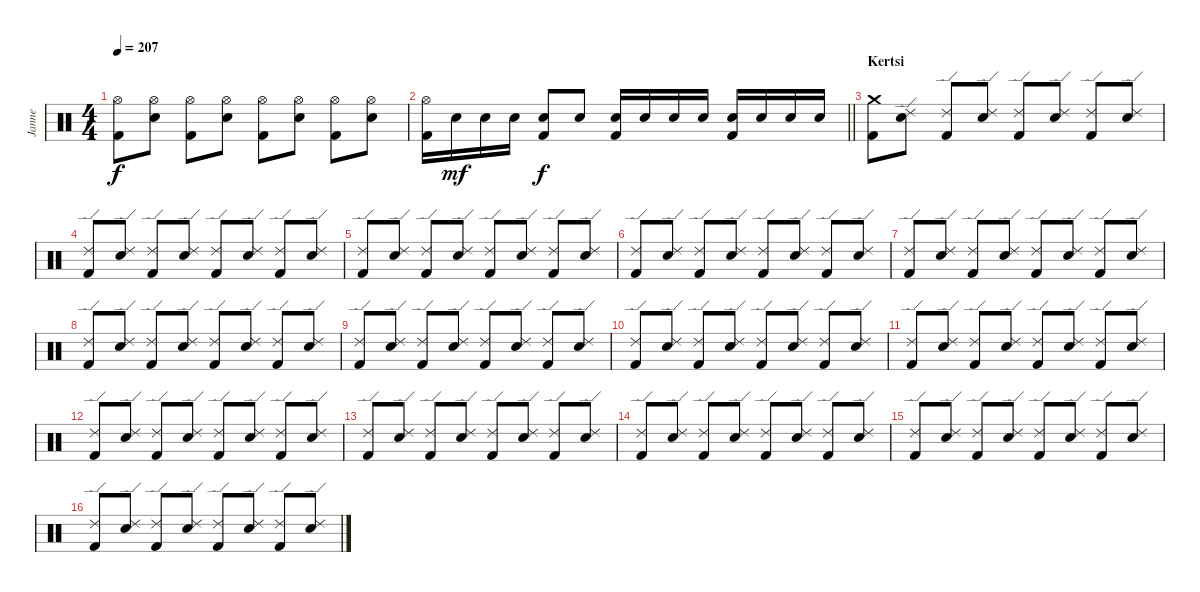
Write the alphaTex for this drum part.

\track ("Janne" "Janne") {instrument percussion}
\staff {score}
\articulation defaults
\ts (4 4)
\tempo 207
\clef neutral
\ks c
("Hi-Hat (open)" "Kick (hit) 2").8{dy f} ("Hi-Hat (open)" "Electric Snare (hit)").8 ("Hi-Hat (open)" "Kick (hit) 2").8 ("Hi-Hat (open)" "Electric Snare (hit)").8 ("Hi-Hat (open)" "Kick (hit) 2").8 ("Hi-Hat (open)" "Electric Snare (hit)").8 ("Hi-Hat (open)" "Kick (hit) 2").8 ("Hi-Hat (open)" "Electric Snare (hit)").8 |
\barLineRight lightlight
("Hi-Hat (open)" "Kick (hit) 2").16 "Electric Snare (hit)".16{dy mf} "Electric Snare (hit)".16 "Electric Snare (hit)".16 ("Electric Snare (hit)" "Kick (hit) 2").8{dy f} "Electric Snare (hit)".8 ("Electric Snare (hit)" "Kick (hit) 2").16 "Electric Snare (hit)".16 "Electric Snare (hit)".16 "Electric Snare (hit)".16 ("Electric Snare (hit)" "Kick (hit) 2").16 "Electric Snare (hit)".16 "Electric Snare (hit)".16 "Electric Snare (hit)".16 |
\section ("" "Kertsi")
("Crash medium (hit)" "Kick (hit) 2").8 ("Ride (edge) 2" "Electric Snare (hit)").8 ("Ride (edge) 2" "Kick (hit) 2").8 ("Ride (edge) 2" "Electric Snare (hit)").8 ("Ride (edge) 2" "Kick (hit) 2").8 ("Ride (edge) 2" "Electric Snare (hit)").8 ("Ride (edge) 2" "Kick (hit) 2").8 ("Ride (edge) 2" "Electric Snare (hit)").8 |
("Ride (edge) 2" "Kick (hit) 2").8 ("Ride (edge) 2" "Electric Snare (hit)").8 ("Ride (edge) 2" "Kick (hit) 2").8 ("Ride (edge) 2" "Electric Snare (hit)").8 ("Ride (edge) 2" "Kick (hit) 2").8 ("Ride (edge) 2" "Electric Snare (hit)").8 ("Ride (edge) 2" "Kick (hit) 2").8 ("Ride (edge) 2" "Electric Snare (hit)").8 |
("Ride (edge) 2" "Kick (hit) 2").8 ("Ride (edge) 2" "Electric Snare (hit)").8 ("Ride (edge) 2" "Kick (hit) 2").8 ("Ride (edge) 2" "Electric Snare (hit)").8 ("Ride (edge) 2" "Kick (hit) 2").8 ("Ride (edge) 2" "Electric Snare (hit)").8 ("Ride (edge) 2" "Kick (hit) 2").8 ("Ride (edge) 2" "Electric Snare (hit)").8 |
("Ride (edge) 2" "Kick (hit) 2").8 ("Ride (edge) 2" "Electric Snare (hit)").8 ("Ride (edge) 2" "Kick (hit) 2").8 ("Ride (edge) 2" "Electric Snare (hit)").8 ("Ride (edge) 2" "Kick (hit) 2").8 ("Ride (edge) 2" "Electric Snare (hit)").8 ("Ride (edge) 2" "Kick (hit) 2").8 ("Ride (edge) 2" "Electric Snare (hit)").8 |
("Ride (edge) 2" "Kick (hit) 2").8 ("Ride (edge) 2" "Electric Snare (hit)").8 ("Ride (edge) 2" "Kick (hit) 2").8 ("Ride (edge) 2" "Electric Snare (hit)").8 ("Ride (edge) 2" "Kick (hit) 2").8 ("Ride (edge) 2" "Electric Snare (hit)").8 ("Ride (edge) 2" "Kick (hit) 2").8 ("Ride (edge) 2" "Electric Snare (hit)").8 |
("Ride (edge) 2" "Kick (hit) 2").8 ("Ride (edge) 2" "Electric Snare (hit)").8 ("Ride (edge) 2" "Kick (hit) 2").8 ("Ride (edge) 2" "Electric Snare (hit)").8 ("Ride (edge) 2" "Kick (hit) 2").8 ("Ride (edge) 2" "Electric Snare (hit)").8 ("Ride (edge) 2" "Kick (hit) 2").8 ("Ride (edge) 2" "Electric Snare (hit)").8 |
("Ride (edge) 2" "Kick (hit) 2").8 ("Ride (edge) 2" "Electric Snare (hit)").8 ("Ride (edge) 2" "Kick (hit) 2").8 ("Ride (edge) 2" "Electric Snare (hit)").8 ("Ride (edge) 2" "Kick (hit) 2").8 ("Ride (edge) 2" "Electric Snare (hit)").8 ("Ride (edge) 2" "Kick (hit) 2").8 ("Ride (edge) 2" "Electric Snare (hit)").8 |
("Ride (edge) 2" "Kick (hit) 2").8 ("Ride (edge) 2" "Electric Snare (hit)").8 ("Ride (edge) 2" "Kick (hit) 2").8 ("Ride (edge) 2" "Electric Snare (hit)").8 ("Ride (edge) 2" "Kick (hit) 2").8 ("Ride (edge) 2" "Electric Snare (hit)").8 ("Ride (edge) 2" "Kick (hit) 2").8 ("Ride (edge) 2" "Electric Snare (hit)").8 |
("Ride (edge) 2" "Kick (hit) 2").8 ("Ride (edge) 2" "Electric Snare (hit)").8 ("Ride (edge) 2" "Kick (hit) 2").8 ("Ride (edge) 2" "Electric Snare (hit)").8 ("Ride (edge) 2" "Kick (hit) 2").8 ("Ride (edge) 2" "Electric Snare (hit)").8 ("Ride (edge) 2" "Kick (hit) 2").8 ("Ride (edge) 2" "Electric Snare (hit)").8 |
("Ride (edge) 2" "Kick (hit) 2").8 ("Ride (edge) 2" "Electric Snare (hit)").8 ("Ride (edge) 2" "Kick (hit) 2").8 ("Ride (edge) 2" "Electric Snare (hit)").8 ("Ride (edge) 2" "Kick (hit) 2").8 ("Ride (edge) 2" "Electric Snare (hit)").8 ("Ride (edge) 2" "Kick (hit) 2").8 ("Ride (edge) 2" "Electric Snare (hit)").8 |
("Ride (edge) 2" "Kick (hit) 2").8 ("Ride (edge) 2" "Electric Snare (hit)").8 ("Ride (edge) 2" "Kick (hit) 2").8 ("Ride (edge) 2" "Electric Snare (hit)").8 ("Ride (edge) 2" "Kick (hit) 2").8 ("Ride (edge) 2" "Electric Snare (hit)").8 ("Ride (edge) 2" "Kick (hit) 2").8 ("Ride (edge) 2" "Electric Snare (hit)").8 |
("Ride (edge) 2" "Kick (hit) 2").8 ("Ride (edge) 2" "Electric Snare (hit)").8 ("Ride (edge) 2" "Kick (hit) 2").8 ("Ride (edge) 2" "Electric Snare (hit)").8 ("Ride (edge) 2" "Kick (hit) 2").8 ("Ride (edge) 2" "Electric Snare (hit)").8 ("Ride (edge) 2" "Kick (hit) 2").8 ("Ride (edge) 2" "Electric Snare (hit)").8 |
("Ride (edge) 2" "Kick (hit) 2").8 ("Ride (edge) 2" "Electric Snare (hit)").8 ("Ride (edge) 2" "Kick (hit) 2").8 ("Ride (edge) 2" "Electric Snare (hit)").8 ("Ride (edge) 2" "Kick (hit) 2").8 ("Ride (edge) 2" "Electric Snare (hit)").8 ("Ride (edge) 2" "Kick (hit) 2").8 ("Ride (edge) 2" "Electric Snare (hit)").8 |
("Ride (edge) 2" "Kick (hit) 2").8 ("Ride (edge) 2" "Electric Snare (hit)").8 ("Ride (edge) 2" "Kick (hit) 2").8 ("Ride (edge) 2" "Electric Snare (hit)").8 ("Ride (edge) 2" "Kick (hit) 2").8 ("Ride (edge) 2" "Electric Snare (hit)").8 ("Ride (edge) 2" "Kick (hit) 2").8 ("Ride (edge) 2" "Electric Snare (hit)").8
